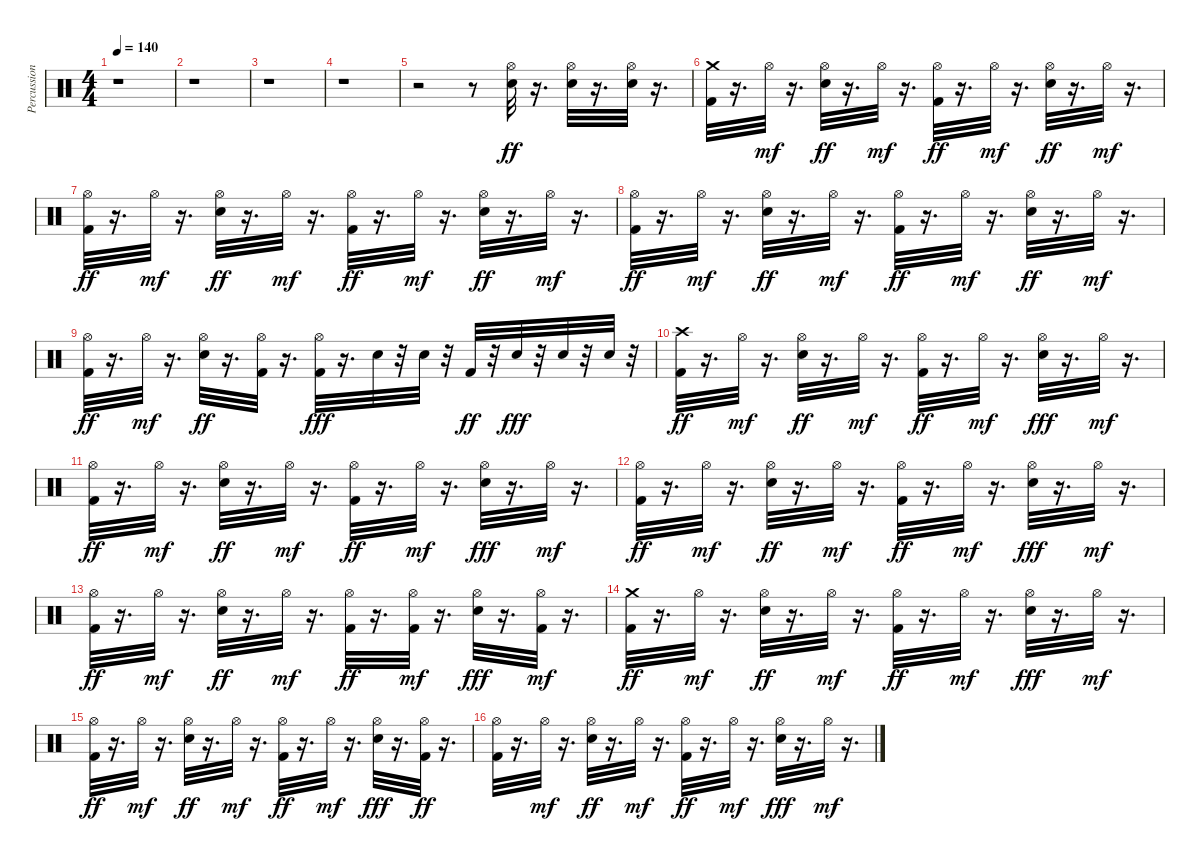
\track ("Percussion" "Percussion") {instrument percussion}
\staff {score}
\articulation defaults
\ts (4 4)
\tempo 140
\clef neutral
\ks c
r.1{dy ff} |
r.1 |
r.1 |
r.1 |
r.2 r.8 ("Electric Snare (hit)" "Hi-Hat (open)").32{volume 16} r.16{d} ("Electric Snare (hit)" "Hi-Hat (open)").32 r.16{d} ("Electric Snare (hit)" "Hi-Hat (open)").32 r.16{d} |
("Kick (hit) 2" "Crash medium (hit)").32 r.16{d} "Hi-Hat (open)".32{dy mf} r.16{d} ("Electric Snare (hit)" "Hi-Hat (open)").32{dy ff} r.16{d} "Hi-Hat (open)".32{dy mf} r.16{d} ("Kick (hit) 2" "Hi-Hat (open)").32{dy ff} r.16{d} "Hi-Hat (open)".32{dy mf} r.16{d} ("Electric Snare (hit)" "Hi-Hat (open)").32{dy ff} r.16{d} "Hi-Hat (open)".32{dy mf} r.16{d} |
("Kick (hit) 2" "Hi-Hat (open)").32{dy ff} r.16{d} "Hi-Hat (open)".32{dy mf} r.16{d} ("Electric Snare (hit)" "Hi-Hat (open)").32{dy ff} r.16{d} "Hi-Hat (open)".32{dy mf} r.16{d} ("Kick (hit) 2" "Hi-Hat (open)").32{dy ff} r.16{d} "Hi-Hat (open)".32{dy mf} r.16{d} ("Electric Snare (hit)" "Hi-Hat (open)").32{dy ff} r.16{d} "Hi-Hat (open)".32{dy mf} r.16{d} |
("Kick (hit) 2" "Hi-Hat (open)").32{dy ff} r.16{d} "Hi-Hat (open)".32{dy mf} r.16{d} ("Electric Snare (hit)" "Hi-Hat (open)").32{dy ff} r.16{d} "Hi-Hat (open)".32{dy mf} r.16{d} ("Kick (hit) 2" "Hi-Hat (open)").32{dy ff} r.16{d} "Hi-Hat (open)".32{dy mf} r.16{d} ("Electric Snare (hit)" "Hi-Hat (open)").32{dy ff} r.16{d} "Hi-Hat (open)".32{dy mf} r.16{d} |
("Kick (hit) 2" "Hi-Hat (open)").32{dy ff} r.16{d} "Hi-Hat (open)".32{dy mf} r.16{d} ("Electric Snare (hit)" "Hi-Hat (open)").32{dy ff} r.16{d} ("Kick (hit) 2" "Hi-Hat (open)").32 r.16{d} ("Kick (hit) 2" "Hi-Hat (open)").32{dy fff} r.16{d} "Electric Snare (hit)".32 r.32 "Electric Snare (hit)".32 r.32 "Kick (hit) 2".32{dy ff} r.32 "Electric Snare (hit)".32{dy fff} r.32 "Electric Snare (hit)".32 r.32 "Electric Snare (hit)".32 r.32 |
("Kick (hit) 2" "Crash high (hit)").32{dy ff} r.16{d} "Hi-Hat (open)".32{dy mf} r.16{d} ("Electric Snare (hit)" "Hi-Hat (open)").32{dy ff} r.16{d} "Hi-Hat (open)".32{dy mf} r.16{d} ("Kick (hit) 2" "Hi-Hat (open)").32{dy ff} r.16{d} "Hi-Hat (open)".32{dy mf} r.16{d} ("Electric Snare (hit)" "Hi-Hat (open)").32{dy fff} r.16{d} "Hi-Hat (open)".32{dy mf} r.16{d} |
("Kick (hit) 2" "Hi-Hat (open)").32{dy ff} r.16{d} "Hi-Hat (open)".32{dy mf} r.16{d} ("Electric Snare (hit)" "Hi-Hat (open)").32{dy ff} r.16{d} "Hi-Hat (open)".32{dy mf} r.16{d} ("Kick (hit) 2" "Hi-Hat (open)").32{dy ff} r.16{d} "Hi-Hat (open)".32{dy mf} r.16{d} ("Electric Snare (hit)" "Hi-Hat (open)").32{dy fff} r.16{d} "Hi-Hat (open)".32{dy mf} r.16{d} |
("Kick (hit) 2" "Hi-Hat (open)").32{dy ff} r.16{d} "Hi-Hat (open)".32{dy mf} r.16{d} ("Electric Snare (hit)" "Hi-Hat (open)").32{dy ff} r.16{d} "Hi-Hat (open)".32{dy mf} r.16{d} ("Kick (hit) 2" "Hi-Hat (open)").32{dy ff} r.16{d} "Hi-Hat (open)".32{dy mf} r.16{d} ("Electric Snare (hit)" "Hi-Hat (open)").32{dy fff} r.16{d} "Hi-Hat (open)".32{dy mf} r.16{d} |
("Kick (hit) 2" "Hi-Hat (open)").32{dy ff} r.16{d} "Hi-Hat (open)".32{dy mf} r.16{d} ("Electric Snare (hit)" "Hi-Hat (open)").32{dy ff} r.16{d} "Hi-Hat (open)".32{dy mf} r.16{d} ("Kick (hit) 2" "Hi-Hat (open)").32{dy ff} r.16{d} ("Kick (hit) 2" "Hi-Hat (open)").32{dy mf} r.16{d} ("Electric Snare (hit)" "Hi-Hat (open)").32{dy fff} r.16{d} ("Kick (hit) 2" "Hi-Hat (open)").32{dy mf} r.16{d} |
("Kick (hit) 2" "Crash medium (hit)").32{dy ff} r.16{d} "Hi-Hat (open)".32{dy mf} r.16{d} ("Electric Snare (hit)" "Hi-Hat (open)").32{dy ff} r.16{d} "Hi-Hat (open)".32{dy mf} r.16{d} ("Kick (hit) 2" "Hi-Hat (open)").32{dy ff} r.16{d} "Hi-Hat (open)".32{dy mf} r.16{d} ("Electric Snare (hit)" "Hi-Hat (open)").32{dy fff} r.16{d} "Hi-Hat (open)".32{dy mf} r.16{d} |
("Kick (hit) 2" "Hi-Hat (open)").32{dy ff} r.16{d} "Hi-Hat (open)".32{dy mf} r.16{d} ("Electric Snare (hit)" "Hi-Hat (open)").32{dy ff} r.16{d} "Hi-Hat (open)".32{dy mf} r.16{d} ("Kick (hit) 2" "Hi-Hat (open)").32{dy ff} r.16{d} "Hi-Hat (open)".32{dy mf} r.16{d} ("Electric Snare (hit)" "Hi-Hat (open)").32{dy fff} r.16{d} ("Hi-Hat (open)" "Kick (hit) 2").32{dy ff} r.16{d} |
("Kick (hit) 2" "Hi-Hat (open)").32 r.16{d} "Hi-Hat (open)".32{dy mf} r.16{d} ("Electric Snare (hit)" "Hi-Hat (open)").32{dy ff} r.16{d} "Hi-Hat (open)".32{dy mf} r.16{d} ("Kick (hit) 2" "Hi-Hat (open)").32{dy ff} r.16{d} "Hi-Hat (open)".32{dy mf} r.16{d} ("Electric Snare (hit)" "Hi-Hat (open)").32{dy fff} r.16{d} "Hi-Hat (open)".32{dy mf} r.16{d}
